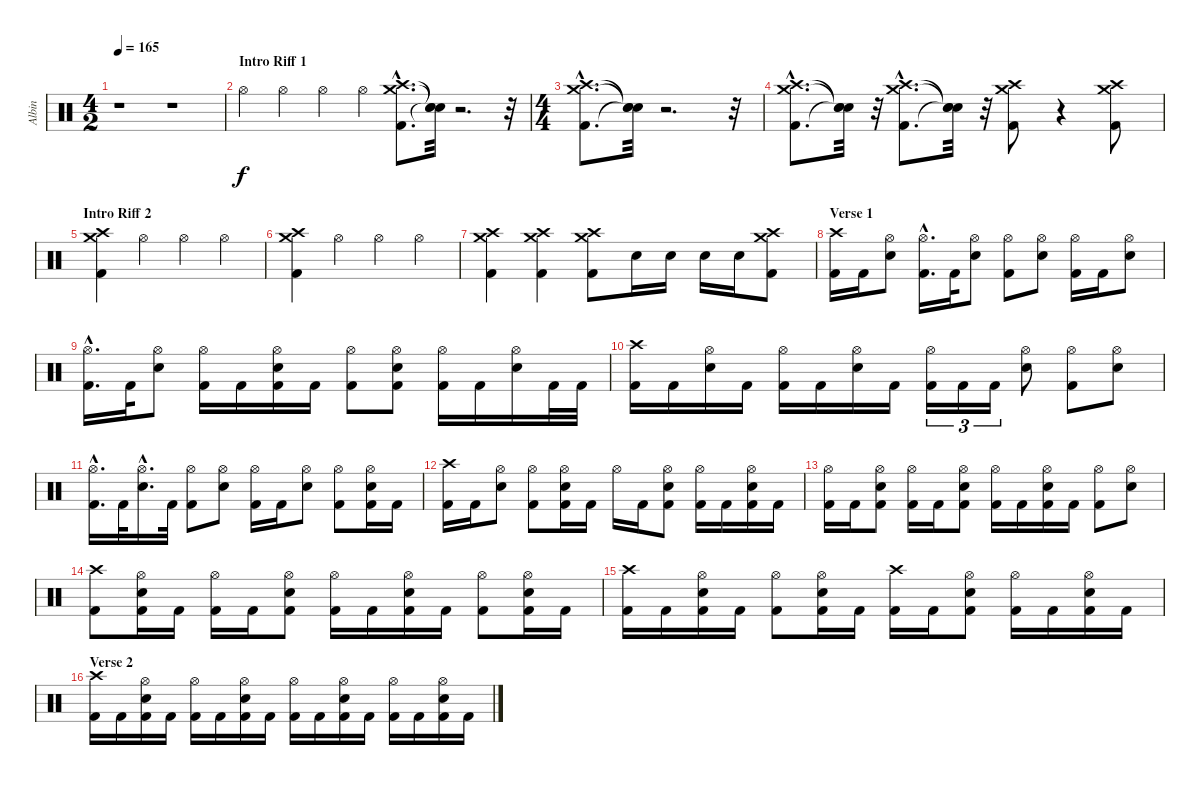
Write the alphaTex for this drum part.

\track ("Albin" "Albin") {instrument percussion}
\staff {score}
\articulation defaults
\ts (4 2)
\tempo 165
\clef neutral
\ks c
r.1{dy f} r.1 |
\section ("" "Intro Riff 1")
"Hi-Hat (open)".4 "Hi-Hat (open)".4 "Hi-Hat (open)".4 "Hi-Hat (open)".4 ("Kick (hit) 2"{hac} "Crash high (hit)"{hac} "Crash medium (hit)"{hac}).8{d} ("Snare (hit)"{t} "Snare (hit)"{t} "Snare (hit)"{t}).32 r.2{d} r.32 |
\ts (4 4)
("Kick (hit) 2"{hac} "Crash high (hit)"{hac} "Crash medium (hit)"{hac}).8{d} ("Snare (hit)"{t} "Snare (hit)"{t} "Snare (hit)"{t}).32 r.2{d} r.32 |
("Kick (hit) 2"{hac} "Crash high (hit)"{hac} "Crash medium (hit)"{hac}).8{d} ("Snare (hit)"{t} "Snare (hit)"{t} "Snare (hit)"{t}).32 r.32 ("Kick (hit) 2"{hac} "Crash medium (hit)"{hac} "Crash high (hit)"{hac}).8{d} ("Snare (hit)"{t} "Snare (hit)"{t} "Snare (hit)"{t}).32 r.32 ("Kick (hit) 2" "Crash high (hit)" "Crash medium (hit)").8 r.4 ("Kick (hit) 2" "Crash high (hit)" "Crash medium (hit)").8 |
\section ("" "Intro Riff 2")
("Kick (hit) 2" "Crash high (hit)" "Crash medium (hit)").4 "Hi-Hat (open)".4 "Hi-Hat (open)".4 "Hi-Hat (open)".4 |
("Kick (hit) 2" "Crash high (hit)" "Crash medium (hit)").4 "Hi-Hat (open)".4 "Hi-Hat (open)".4 "Hi-Hat (open)".4 |
("Kick (hit) 2" "Crash high (hit)" "Crash medium (hit)").4 ("Kick (hit) 2" "Crash high (hit)" "Crash medium (hit)").4 ("Kick (hit) 2" "Crash high (hit)" "Crash medium (hit)").8 "Electric Snare (hit)".16 "Electric Snare (hit)".16 "Electric Snare (hit)".16 "Electric Snare (hit)".16 ("Kick (hit) 2" "Crash high (hit)" "Crash medium (hit)").8 |
\section ("" "Verse 1")
("Kick (hit) 2" "Crash high (hit)").16 "Kick (hit) 2".16 ("Electric Snare (hit)" "Hi-Hat (open)").8 ("Kick (hit) 2"{hac} "Hi-Hat (open)"{hac}).16{d} "Kick (hit) 2".32 ("Electric Snare (hit)" "Hi-Hat (open)").8 ("Kick (hit) 2" "Hi-Hat (open)").8 ("Electric Snare (hit)" "Hi-Hat (open)").8 ("Kick (hit) 2" "Hi-Hat (open)").16 "Kick (hit) 2".16 ("Electric Snare (hit)" "Hi-Hat (open)").8 |
("Kick (hit) 2"{hac} "Hi-Hat (open)"{hac}).16{d} "Kick (hit) 2".32 ("Electric Snare (hit)" "Hi-Hat (open)").8 ("Kick (hit) 2" "Hi-Hat (open)").16 "Kick (hit) 2".16 ("Kick (hit) 2" "Electric Snare (hit)" "Hi-Hat (open)").16 "Kick (hit) 2".16 ("Kick (hit) 2" "Hi-Hat (open)").8 ("Kick (hit) 2" "Electric Snare (hit)" "Hi-Hat (open)").8 ("Kick (hit) 2" "Hi-Hat (open)").16 "Kick (hit) 2".16 ("Electric Snare (hit)" "Hi-Hat (open)").16 "Kick (hit) 2".32 "Kick (hit) 2".32 |
("Kick (hit) 2" "Crash high (hit)").16 "Kick (hit) 2".16 ("Electric Snare (hit)" "Hi-Hat (open)").16 "Kick (hit) 2".16 ("Kick (hit) 2" "Hi-Hat (open)").16 "Kick (hit) 2".16 ("Electric Snare (hit)" "Hi-Hat (open)").16 "Kick (hit) 2".16 ("Kick (hit) 2" "Hi-Hat (open)").16{tu (3 2)} "Kick (hit) 2".16{tu (3 2)} "Kick (hit) 2".16{tu (3 2)} ("Electric Snare (hit)" "Hi-Hat (open)").8 ("Kick (hit) 2" "Hi-Hat (open)").8 ("Electric Snare (hit)" "Hi-Hat (open)").8 |
("Kick (hit) 2"{hac} "Hi-Hat (open)"{hac}).16{d} "Kick (hit) 2".32 ("Electric Snare (hit)"{hac} "Hi-Hat (open)"{hac}).16{d} "Kick (hit) 2".32 ("Kick (hit) 2" "Hi-Hat (open)").8 ("Electric Snare (hit)" "Hi-Hat (open)").8 ("Kick (hit) 2" "Hi-Hat (open)").16 "Kick (hit) 2".16 ("Electric Snare (hit)" "Hi-Hat (open)").8 ("Kick (hit) 2" "Hi-Hat (open)").8 ("Kick (hit) 2" "Electric Snare (hit)" "Hi-Hat (open)").16 "Kick (hit) 2".16 |
("Kick (hit) 2" "Crash high (hit)").16 "Kick (hit) 2".16 ("Electric Snare (hit)" "Hi-Hat (open)").8 ("Kick (hit) 2" "Hi-Hat (open)").8 ("Kick (hit) 2" "Electric Snare (hit)" "Hi-Hat (open)").16 "Kick (hit) 2".16 "Hi-Hat (open)".16 "Kick (hit) 2".16 ("Kick (hit) 2" "Electric Snare (hit)" "Hi-Hat (open)").8 ("Kick (hit) 2" "Hi-Hat (open)").16 "Kick (hit) 2".16 ("Kick (hit) 2" "Electric Snare (hit)" "Hi-Hat (open)").16 "Kick (hit) 2".16 |
("Kick (hit) 2" "Hi-Hat (open)").16 "Kick (hit) 2".16 ("Kick (hit) 2" "Electric Snare (hit)" "Hi-Hat (open)").8 ("Kick (hit) 2" "Hi-Hat (open)").16 "Kick (hit) 2".16 ("Kick (hit) 2" "Electric Snare (hit)" "Hi-Hat (open)").8 ("Kick (hit) 2" "Hi-Hat (open)").16 "Kick (hit) 2".16 ("Kick (hit) 2" "Electric Snare (hit)" "Hi-Hat (open)").16 "Kick (hit) 2".16 ("Kick (hit) 2" "Hi-Hat (open)").8 ("Electric Snare (hit)" "Hi-Hat (open)").8 |
("Kick (hit) 2" "Crash high (hit)").8 ("Kick (hit) 2" "Electric Snare (hit)" "Hi-Hat (open)").16 "Kick (hit) 2".16 ("Kick (hit) 2" "Hi-Hat (open)").16 "Kick (hit) 2".16 ("Kick (hit) 2" "Electric Snare (hit)" "Hi-Hat (open)").8 ("Kick (hit) 2" "Hi-Hat (open)").16 "Kick (hit) 2".16 ("Kick (hit) 2" "Electric Snare (hit)" "Hi-Hat (open)").16 "Kick (hit) 2".16 ("Kick (hit) 2" "Hi-Hat (open)").8 ("Kick (hit) 2" "Electric Snare (hit)" "Hi-Hat (open)").16 "Kick (hit) 2".16 |
("Kick (hit) 2" "Crash high (hit)").16 "Kick (hit) 2".16 ("Kick (hit) 2" "Electric Snare (hit)" "Hi-Hat (open)").16 "Kick (hit) 2".16 ("Kick (hit) 2" "Hi-Hat (open)").8 ("Kick (hit) 2" "Electric Snare (hit)" "Hi-Hat (open)").16 "Kick (hit) 2".16 ("Kick (hit) 2" "Crash high (hit)").16 "Kick (hit) 2".16 ("Kick (hit) 2" "Electric Snare (hit)" "Hi-Hat (open)").8 ("Kick (hit) 2" "Hi-Hat (open)").16 "Kick (hit) 2".16 ("Kick (hit) 2" "Electric Snare (hit)" "Hi-Hat (open)").16 "Kick (hit) 2".16 |
\section ("" "Verse 2")
("Kick (hit) 2" "Crash high (hit)").16 "Kick (hit) 2".16 ("Kick (hit) 2" "Electric Snare (hit)" "Hi-Hat (open)").16 "Kick (hit) 2".16 ("Kick (hit) 2" "Hi-Hat (open)").16 "Kick (hit) 2".16 ("Kick (hit) 2" "Electric Snare (hit)" "Hi-Hat (open)").16 "Kick (hit) 2".16 ("Kick (hit) 2" "Hi-Hat (open)").16 "Kick (hit) 2".16 ("Kick (hit) 2" "Electric Snare (hit)" "Hi-Hat (open)").16 "Kick (hit) 2".16 ("Kick (hit) 2" "Hi-Hat (open)").16 "Kick (hit) 2".16 ("Kick (hit) 2" "Electric Snare (hit)" "Hi-Hat (open)").16 "Kick (hit) 2".16
